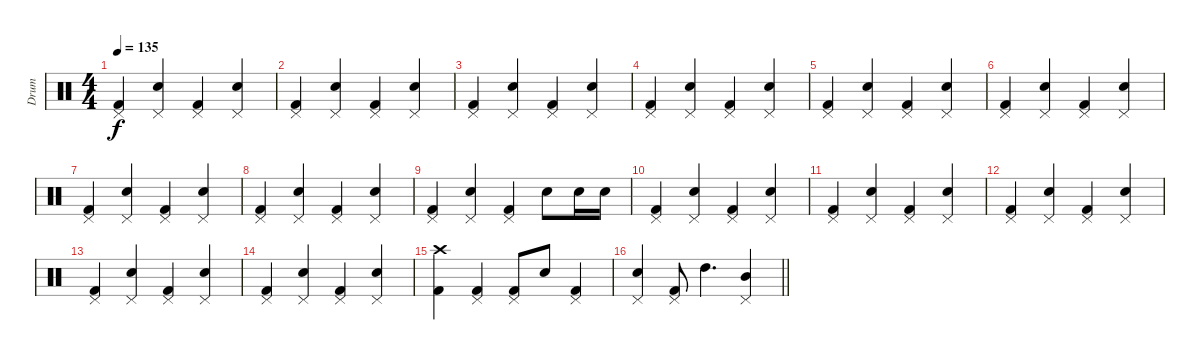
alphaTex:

\track ("Drum" "Drum") {instrument percussion}
\staff {score}
\articulation defaults
\ts (4 4)
\tempo 135
\clef neutral
\ks c
("Kick (hit) 2" "Pedal Hi-Hat (hit)").4{dy f} ("Electric Snare (hit)" "Pedal Hi-Hat (hit)").4 ("Kick (hit) 2" "Pedal Hi-Hat (hit)").4 ("Electric Snare (hit)" "Pedal Hi-Hat (hit)").4 |
("Kick (hit) 2" "Pedal Hi-Hat (hit)").4 ("Electric Snare (hit)" "Pedal Hi-Hat (hit)").4 ("Kick (hit) 2" "Pedal Hi-Hat (hit)").4 ("Electric Snare (hit)" "Pedal Hi-Hat (hit)").4 |
("Kick (hit) 2" "Pedal Hi-Hat (hit)").4 ("Electric Snare (hit)" "Pedal Hi-Hat (hit)").4 ("Kick (hit) 2" "Pedal Hi-Hat (hit)").4 ("Electric Snare (hit)" "Pedal Hi-Hat (hit)").4 |
("Kick (hit) 2" "Pedal Hi-Hat (hit)").4 ("Electric Snare (hit)" "Pedal Hi-Hat (hit)").4 ("Kick (hit) 2" "Pedal Hi-Hat (hit)").4 ("Electric Snare (hit)" "Pedal Hi-Hat (hit)").4 |
("Kick (hit) 2" "Pedal Hi-Hat (hit)").4 ("Electric Snare (hit)" "Pedal Hi-Hat (hit)").4 ("Kick (hit) 2" "Pedal Hi-Hat (hit)").4 ("Electric Snare (hit)" "Pedal Hi-Hat (hit)").4 |
("Kick (hit) 2" "Pedal Hi-Hat (hit)").4 ("Electric Snare (hit)" "Pedal Hi-Hat (hit)").4 ("Kick (hit) 2" "Pedal Hi-Hat (hit)").4 ("Electric Snare (hit)" "Pedal Hi-Hat (hit)").4 |
("Kick (hit) 2" "Pedal Hi-Hat (hit)").4 ("Electric Snare (hit)" "Pedal Hi-Hat (hit)").4 ("Kick (hit) 2" "Pedal Hi-Hat (hit)").4 ("Electric Snare (hit)" "Pedal Hi-Hat (hit)").4 |
("Kick (hit) 2" "Pedal Hi-Hat (hit)").4 ("Electric Snare (hit)" "Pedal Hi-Hat (hit)").4 ("Kick (hit) 2" "Pedal Hi-Hat (hit)").4 ("Electric Snare (hit)" "Pedal Hi-Hat (hit)").4 |
("Kick (hit) 2" "Pedal Hi-Hat (hit)").4 ("Electric Snare (hit)" "Pedal Hi-Hat (hit)").4 ("Kick (hit) 2" "Pedal Hi-Hat (hit)").4 "Electric Snare (hit)".8 "Electric Snare (hit)".16 "Electric Snare (hit)".16 |
("Kick (hit) 2" "Pedal Hi-Hat (hit)").4 ("Electric Snare (hit)" "Pedal Hi-Hat (hit)").4 ("Kick (hit) 2" "Pedal Hi-Hat (hit)").4 ("Electric Snare (hit)" "Pedal Hi-Hat (hit)").4 |
("Kick (hit) 2" "Pedal Hi-Hat (hit)").4 ("Electric Snare (hit)" "Pedal Hi-Hat (hit)").4 ("Kick (hit) 2" "Pedal Hi-Hat (hit)").4 ("Electric Snare (hit)" "Pedal Hi-Hat (hit)").4 |
("Kick (hit) 2" "Pedal Hi-Hat (hit)").4 ("Electric Snare (hit)" "Pedal Hi-Hat (hit)").4 ("Kick (hit) 2" "Pedal Hi-Hat (hit)").4 ("Electric Snare (hit)" "Pedal Hi-Hat (hit)").4 |
("Kick (hit) 2" "Pedal Hi-Hat (hit)").4 ("Electric Snare (hit)" "Pedal Hi-Hat (hit)").4 ("Kick (hit) 2" "Pedal Hi-Hat (hit)").4 ("Electric Snare (hit)" "Pedal Hi-Hat (hit)").4 |
("Kick (hit) 2" "Pedal Hi-Hat (hit)").4 ("Electric Snare (hit)" "Pedal Hi-Hat (hit)").4 ("Kick (hit) 2" "Pedal Hi-Hat (hit)").4 ("Electric Snare (hit)" "Pedal Hi-Hat (hit)").4 |
("Crash high (hit)" "Kick (hit) 2").4 ("Pedal Hi-Hat (hit)" "Kick (hit) 2").4 ("Pedal Hi-Hat (hit)" "Kick (hit) 2").8 "Electric Snare (hit)".8 ("Pedal Hi-Hat (hit)" "Kick (hit) 2").4 |
\barLineRight lightlight
("Pedal Hi-Hat (hit)" "Snare (hit) 2").4 ("Pedal Hi-Hat (hit)" "Kick (hit) 2").8 "High Tom (hit)".4{d} ("Pedal Hi-Hat (hit)" "Mid Tom (hit)").4
